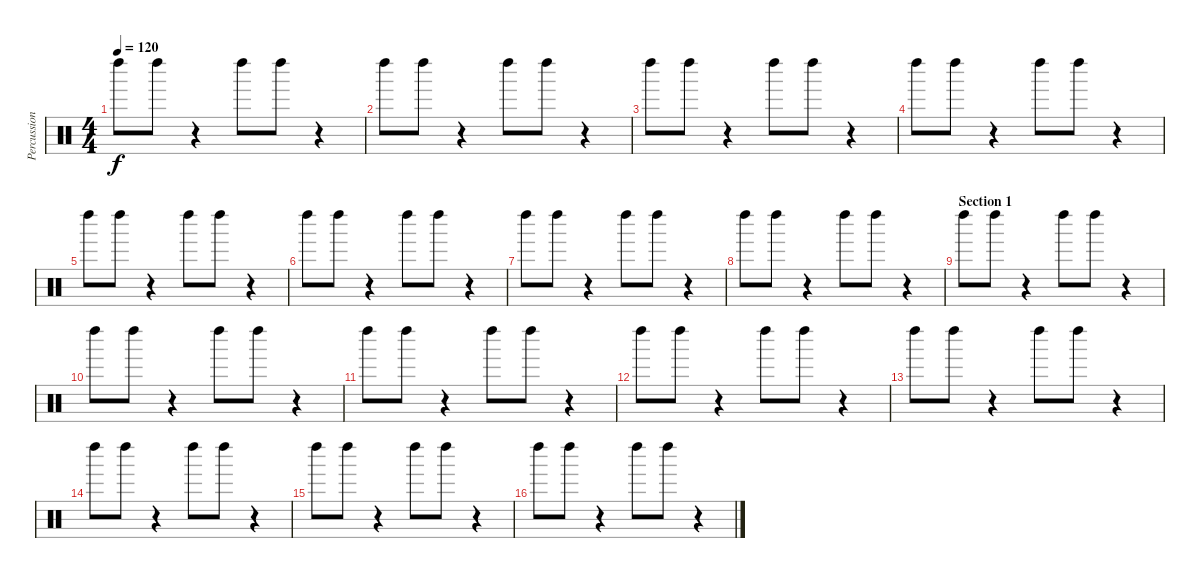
\track ("Percussions" "Percussion") {instrument percussion}
\staff {score}
\articulation defaults
\ts (4 4)
\tempo 120
\clef neutral
\ks c "Left Maraca (hit)".8{dy f} "Left Maraca (hit)".8
r.4 "Left Maraca (hit)".8 "Left Maraca (hit)".8 r.4 |
"Left Maraca (hit)".8 "Left Maraca (hit)".8 r.4 "Left Maraca (hit)".8 "Left Maraca (hit)".8 r.4 |
"Left Maraca (hit)".8 "Left Maraca (hit)".8 r.4 "Left Maraca (hit)".8 "Left Maraca (hit)".8 r.4 |
"Left Maraca (hit)".8 "Left Maraca (hit)".8 r.4 "Left Maraca (hit)".8 "Left Maraca (hit)".8 r.4 |
"Left Maraca (hit)".8 "Left Maraca (hit)".8 r.4 "Left Maraca (hit)".8 "Left Maraca (hit)".8 r.4 |
"Left Maraca (hit)".8 "Left Maraca (hit)".8 r.4 "Left Maraca (hit)".8 "Left Maraca (hit)".8 r.4 |
"Left Maraca (hit)".8 "Left Maraca (hit)".8 r.4 "Left Maraca (hit)".8 "Left Maraca (hit)".8 r.4 |
"Left Maraca (hit)".8 "Left Maraca (hit)".8 r.4 "Left Maraca (hit)".8 "Left Maraca (hit)".8 r.4 |
\section ("" "Section 1")
"Left Maraca (hit)".8 "Left Maraca (hit)".8 r.4 "Left Maraca (hit)".8 "Left Maraca (hit)".8 r.4 |
"Left Maraca (hit)".8 "Left Maraca (hit)".8 r.4 "Left Maraca (hit)".8 "Left Maraca (hit)".8 r.4 |
"Left Maraca (hit)".8 "Left Maraca (hit)".8 r.4 "Left Maraca (hit)".8 "Left Maraca (hit)".8 r.4 |
"Left Maraca (hit)".8 "Left Maraca (hit)".8 r.4 "Left Maraca (hit)".8 "Left Maraca (hit)".8 r.4 |
"Left Maraca (hit)".8 "Left Maraca (hit)".8 r.4 "Left Maraca (hit)".8 "Left Maraca (hit)".8 r.4 |
"Left Maraca (hit)".8 "Left Maraca (hit)".8 r.4 "Left Maraca (hit)".8 "Left Maraca (hit)".8 r.4 |
"Left Maraca (hit)".8 "Left Maraca (hit)".8 r.4 "Left Maraca (hit)".8 "Left Maraca (hit)".8 r.4 |
"Left Maraca (hit)".8 "Left Maraca (hit)".8 r.4 "Left Maraca (hit)".8 "Left Maraca (hit)".8 r.4
